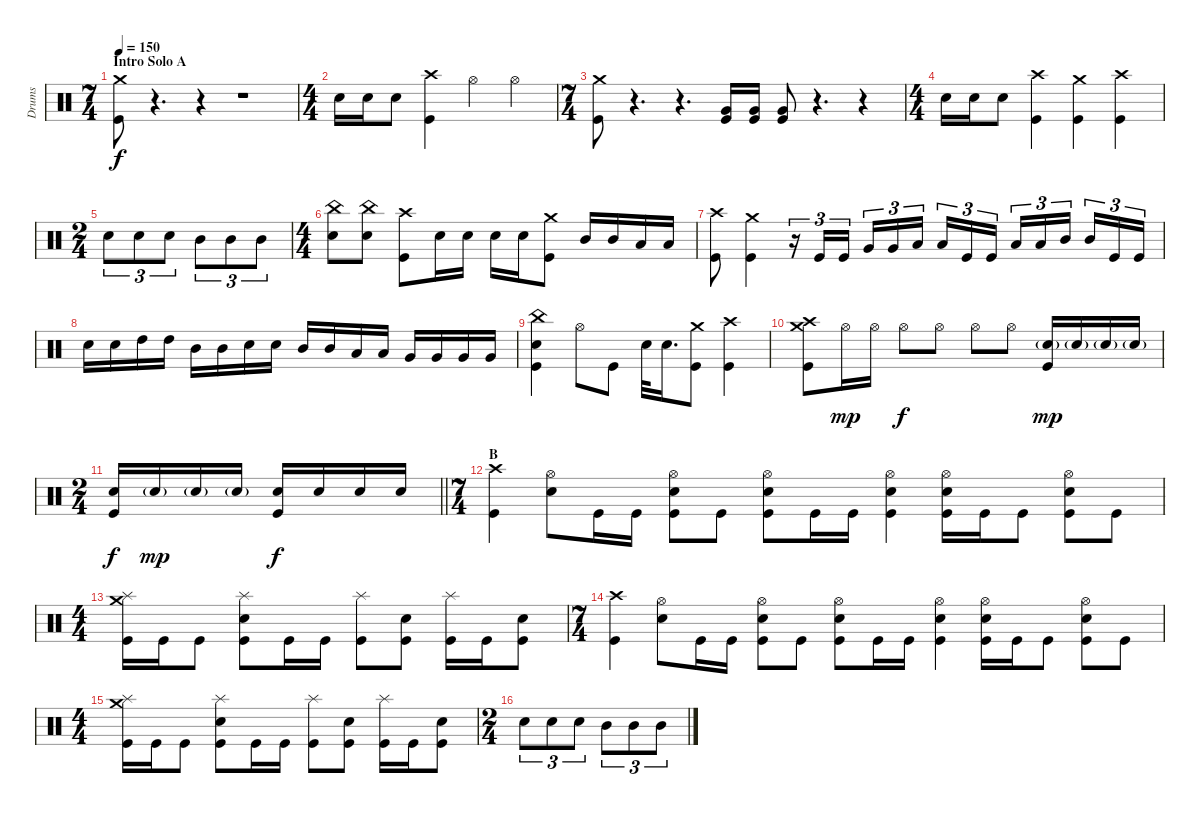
\track ("Drums" "Drums") {instrument percussion}
\staff {score}
\articulation defaults
\ts (7 4)
\section ("" "Intro Solo A")
\tempo 150
\clef neutral
\ks c
("Crash medium (hit)" "Kick (hit)").8{dy f} r.4{d volume 0} r.4 r.1 |
\ts (4 4)
"Electric Snare (hit)".16{volume 13} "Electric Snare (hit)".16 "Electric Snare (hit)".8 ("Crash high (hit)" "Kick (hit)").4 "Hi-Hat (open)".4 "Hi-Hat (open)".4 |
\ts (7 4)
("Crash medium (hit)" "Kick (hit)").8 r.4{d volume 0} r.4{d} ("Very Low Tom (hit)" "Kick (hit)").16{volume 13} ("Very Low Tom (hit)" "Kick (hit)").16 ("Very Low Tom (hit)" "Kick (hit)").8 r.4{d} r.4 |
\ts (4 4)
"Electric Snare (hit)".16 "Electric Snare (hit)".16 "Electric Snare (hit)".8 ("Crash high (hit)" "Kick (hit)").4 ("Crash medium (hit)" "Kick (hit)").4 ("Crash high (hit)" "Kick (hit)").4 |
\ts (2 4)
"Electric Snare (hit)".8{tu (3 2)} "Electric Snare (hit)".8{tu (3 2)} "Electric Snare (hit)".8{tu (3 2)} "Mid Tom (hit)".8{tu (3 2)} "Mid Tom (hit)".8{tu (3 2)} "Mid Tom (hit)".8{tu (3 2)} |
\ts (4 4)
("China (hit)" "Electric Snare (hit)").8 ("China (hit)" "Electric Snare (hit)").8 ("Crash high (hit)" "Kick (hit)").8 "Electric Snare (hit)".16 "Electric Snare (hit)".16 "Electric Snare (hit)".16 "Electric Snare (hit)".16 ("Crash medium (hit)" "Kick (hit)").8 "Mid Tom (hit)".16 "Mid Tom (hit)".16 "Low Tom (hit)".16 "Low Tom (hit)".16 |
("Crash high (hit)" "Kick (hit)").8 ("Crash medium (hit)" "Kick (hit)").4 r.16{tu (3 2)} "Kick (hit)".16{tu (3 2)} "Kick (hit)".16{tu (3 2)} "Very Low Tom (hit)".16{tu (3 2)} "Very Low Tom (hit)".16{tu (3 2)} "Low Tom (hit)".16{tu (3 2)} "Low Tom (hit)".16{tu (3 2)} "Kick (hit)".16{tu (3 2)} "Kick (hit)".16{tu (3 2)} "Low Tom (hit)".16{tu (3 2)} "Low Tom (hit)".16{tu (3 2)} "Mid Tom (hit)".16{tu (3 2)} "Mid Tom (hit)".16{tu (3 2)} "Kick (hit)".16{tu (3 2)} "Kick (hit)".16{tu (3 2)} |
"Electric Snare (hit)".16 "Electric Snare (hit)".16 "High Tom (hit)".16 "High Tom (hit)".16 "Mid Tom (hit)".16 "Mid Tom (hit)".16 "Electric Snare (hit)".16 "Electric Snare (hit)".16 "Mid Tom (hit)".16 "Mid Tom (hit)".16 "Low Tom (hit)".16 "Low Tom (hit)".16 "Very Low Tom (hit)".16 "Very Low Tom (hit)".16 "Very Low Tom (hit)".16 "Very Low Tom (hit)".16 |
("China (hit)" "Electric Snare (hit)" "Kick (hit)").4 "Hi-Hat (open)".8 "Kick (hit)".8 "Electric Snare (hit)".32 "Electric Snare (hit)".16{d} ("Crash medium (hit)" "Kick (hit)").8 ("Crash high (hit)" "Kick (hit)").4 |
("Crash medium (hit)" "Crash high (hit)" "Kick (hit)").8 "Hi-Hat (open)".16{dy mp} "Hi-Hat (open)".16 "Hi-Hat (open)".8{dy f} "Hi-Hat (open)".8 "Hi-Hat (open)".8 "Hi-Hat (open)".8 ("Electric Snare (hit)"{g} "Kick (hit)").16{dy mp} "Electric Snare (hit)"{g}.16 "Electric Snare (hit)"{g}.16 "Electric Snare (hit)"{g}.16 |
\ts (2 4)
\barLineRight lightlight
("Electric Snare (hit)" "Kick (hit)").16{dy f} "Electric Snare (hit)"{g}.16{dy mp} "Electric Snare (hit)"{g}.16 "Electric Snare (hit)"{g}.16 ("Electric Snare (hit)" "Kick (hit)").16{dy f} "Electric Snare (hit)".16 "Electric Snare (hit)".16 "Electric Snare (hit)".16 |
\ts (7 4)
\section ("" "B")
("Crash high (hit)" "Kick (hit)").4 ("Hi-Hat (open)" "Electric Snare (hit)").8 "Kick (hit)".16 "Kick (hit)".16 ("Hi-Hat (open)" "Electric Snare (hit)" "Kick (hit)").8 "Kick (hit)".8 ("Hi-Hat (open)" "Electric Snare (hit)" "Kick (hit)").8 "Kick (hit)".16 "Kick (hit)".16 ("Hi-Hat (open)" "Electric Snare (hit)" "Kick (hit)").4 ("Hi-Hat (open)" "Electric Snare (hit)" "Kick (hit)").16 "Kick (hit)".16 "Kick (hit)".8 ("Hi-Hat (open)" "Electric Snare (hit)" "Kick (hit)").8 "Kick (hit)".8 |
\ts (4 4)
("Crash medium (hit)" "Splash (hit)" "Kick (hit)").16 "Kick (hit)".16 "Kick (hit)".8 ("Splash (hit)" "Electric Snare (hit)" "Kick (hit)").8 "Kick (hit)".16 "Kick (hit)".16 ("Splash (hit)" "Kick (hit)").8 ("Electric Snare (hit)" "Kick (hit)").8 ("Splash (hit)" "Kick (hit)").16 "Kick (hit)".16 ("Electric Snare (hit)" "Kick (hit)").8 |
\ts (7 4)
("Crash high (hit)" "Kick (hit)").4 ("Hi-Hat (open)" "Electric Snare (hit)").8 "Kick (hit)".16 "Kick (hit)".16 ("Hi-Hat (open)" "Electric Snare (hit)" "Kick (hit)").8 "Kick (hit)".8 ("Hi-Hat (open)" "Electric Snare (hit)" "Kick (hit)").8 "Kick (hit)".16 "Kick (hit)".16 ("Hi-Hat (open)" "Electric Snare (hit)" "Kick (hit)").4 ("Hi-Hat (open)" "Electric Snare (hit)" "Kick (hit)").16 "Kick (hit)".16 "Kick (hit)".8 ("Hi-Hat (open)" "Electric Snare (hit)" "Kick (hit)").8 "Kick (hit)".8 |
\ts (4 4)
("Crash medium (hit)" "Splash (hit)" "Kick (hit)").16 "Kick (hit)".16 "Kick (hit)".8 ("Splash (hit)" "Electric Snare (hit)" "Kick (hit)").8 "Kick (hit)".16 "Kick (hit)".16 ("Splash (hit)" "Kick (hit)").8 ("Electric Snare (hit)" "Kick (hit)").8 ("Splash (hit)" "Kick (hit)").16 "Kick (hit)".16 ("Electric Snare (hit)" "Kick (hit)").8 |
\ts (2 4)
"Electric Snare (hit)".8{tu (3 2)} "Electric Snare (hit)".8{tu (3 2)} "Electric Snare (hit)".8{tu (3 2)} "Mid Tom (hit)".8{tu (3 2)} "Mid Tom (hit)".8{tu (3 2)} "Mid Tom (hit)".8{tu (3 2)}
